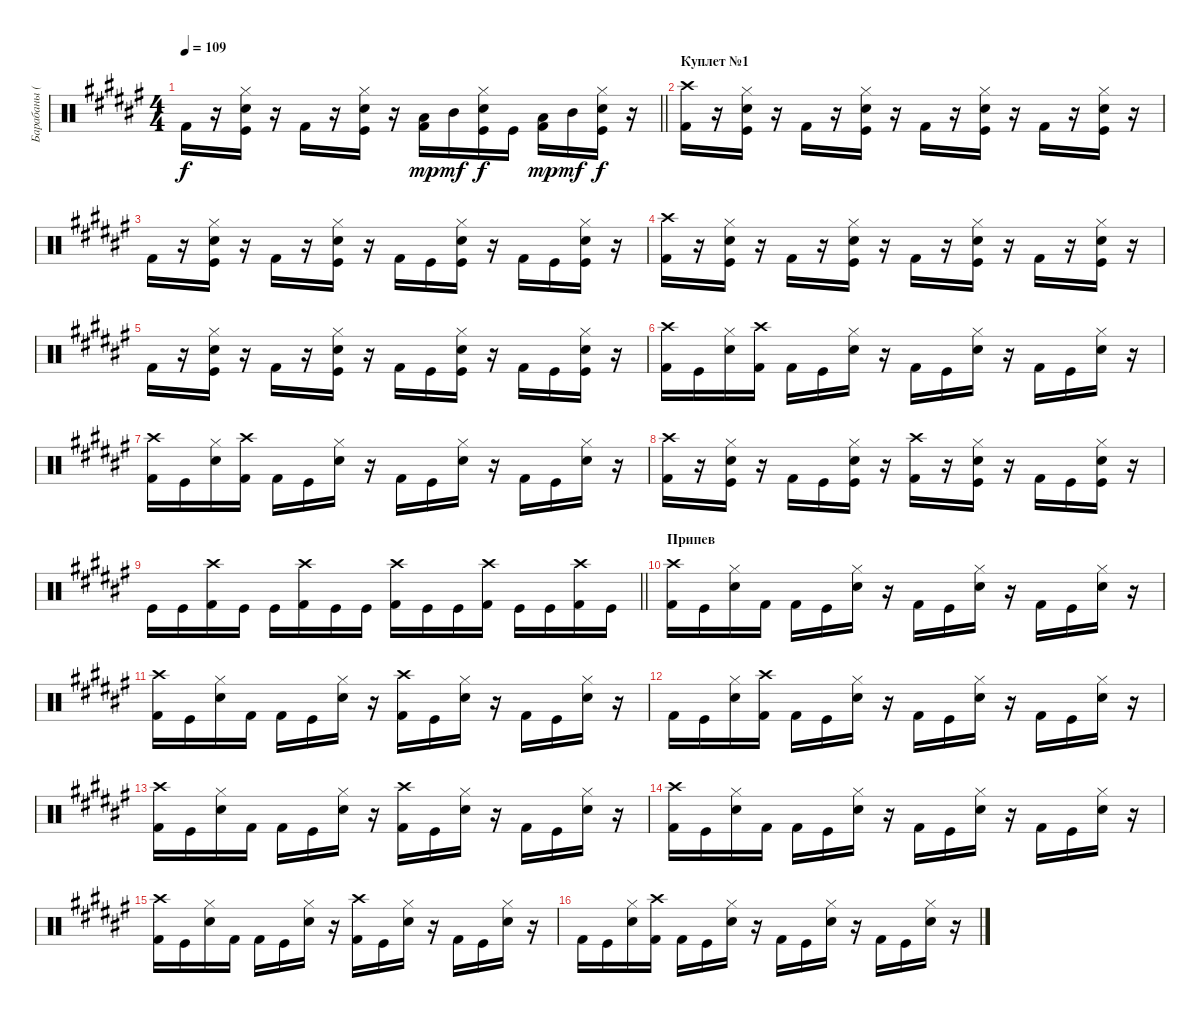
\track ("Барабаны (Н.Лысов)" "Барабаны (") {instrument percussion}
\staff {score}
\articulation defaults
\ts (4 4)
\tempo 109
\clef neutral
\barLineRight lightlight
\ks f# "Kick (hit) 2".16{dy f}
r.16 ("Hi-Hat (closed)" "Snare (hit) 2" "Kick (hit)").16 r.16 "Kick (hit) 2".16 r.16 ("Hi-Hat (closed)" "Snare (hit) 2" "Kick (hit)").16 r.16 ("Low Tom (hit)" "Kick (hit) 2").16{dy mp} "Mid Tom (hit)".16{dy mf} ("Hi-Hat (closed)" "Snare (hit) 2" "Kick (hit)").16{dy f} "Kick (hit)".16 ("Low Tom (hit)" "Kick (hit) 2").16{dy mp} "Mid Tom (hit)".16{dy mf} ("Hi-Hat (closed)" "Snare (hit) 2" "Kick (hit)").16{dy f} r.16 |
\section ("" "Куплет №1")
("Crash high (hit)" "Kick (hit) 2").16 r.16 ("Hi-Hat (closed)" "Snare (hit) 2" "Kick (hit)").16 r.16 "Kick (hit) 2".16 r.16 ("Hi-Hat (closed)" "Snare (hit) 2" "Kick (hit)").16 r.16 "Kick (hit) 2".16 r.16 ("Hi-Hat (closed)" "Snare (hit) 2" "Kick (hit)").16 r.16 "Kick (hit) 2".16 r.16 ("Hi-Hat (closed)" "Snare (hit) 2" "Kick (hit)").16 r.16 |
"Kick (hit) 2".16 r.16 ("Hi-Hat (closed)" "Snare (hit) 2" "Kick (hit)").16 r.16 "Kick (hit) 2".16 r.16 ("Hi-Hat (closed)" "Snare (hit) 2" "Kick (hit)").16 r.16 "Kick (hit) 2".16 "Kick (hit)".16 ("Hi-Hat (closed)" "Snare (hit) 2" "Kick (hit)").16 r.16 "Kick (hit) 2".16 "Kick (hit)".16 ("Hi-Hat (closed)" "Snare (hit) 2" "Kick (hit)").16 r.16 |
("Crash high (hit)" "Kick (hit) 2").16 r.16 ("Hi-Hat (closed)" "Snare (hit) 2" "Kick (hit)").16 r.16 "Kick (hit) 2".16 r.16 ("Hi-Hat (closed)" "Snare (hit) 2" "Kick (hit)").16 r.16 "Kick (hit) 2".16 r.16 ("Hi-Hat (closed)" "Snare (hit) 2" "Kick (hit)").16 r.16 "Kick (hit) 2".16 r.16 ("Hi-Hat (closed)" "Snare (hit) 2" "Kick (hit)").16 r.16 |
"Kick (hit) 2".16 r.16 ("Hi-Hat (closed)" "Snare (hit) 2" "Kick (hit)").16 r.16 "Kick (hit) 2".16 r.16 ("Hi-Hat (closed)" "Snare (hit) 2" "Kick (hit)").16 r.16 "Kick (hit) 2".16 "Kick (hit)".16 ("Hi-Hat (closed)" "Snare (hit) 2" "Kick (hit)").16 r.16 "Kick (hit) 2".16 "Kick (hit)".16 ("Hi-Hat (closed)" "Snare (hit) 2" "Kick (hit)").16 r.16 |
("Crash high (hit)" "Kick (hit) 2").16 "Kick (hit)".16 ("Hi-Hat (closed)" "Snare (hit) 2").16 ("Crash high (hit)" "Kick (hit) 2").16 "Kick (hit) 2".16 "Kick (hit)".16 ("Hi-Hat (closed)" "Snare (hit) 2").16 r.16 "Kick (hit) 2".16 "Kick (hit)".16 ("Hi-Hat (closed)" "Snare (hit) 2").16 r.16 "Kick (hit) 2".16 "Kick (hit)".16 ("Hi-Hat (closed)" "Snare (hit) 2").16 r.16 |
("Crash high (hit)" "Kick (hit) 2").16 "Kick (hit)".16 ("Hi-Hat (closed)" "Snare (hit) 2").16 ("Crash high (hit)" "Kick (hit) 2").16 "Kick (hit) 2".16 "Kick (hit)".16 ("Hi-Hat (closed)" "Snare (hit) 2").16 r.16 "Kick (hit) 2".16 "Kick (hit)".16 ("Hi-Hat (closed)" "Snare (hit) 2").16 r.16 "Kick (hit) 2".16 "Kick (hit)".16 ("Hi-Hat (closed)" "Snare (hit) 2").16 r.16 |
("Crash high (hit)" "Kick (hit) 2").16 r.16 ("Hi-Hat (closed)" "Snare (hit) 2" "Kick (hit)").16 r.16 "Kick (hit) 2".16 "Kick (hit)".16 ("Hi-Hat (closed)" "Snare (hit) 2" "Kick (hit)").16 r.16 ("Crash high (hit)" "Kick (hit) 2").16 r.16 ("Hi-Hat (closed)" "Snare (hit) 2" "Kick (hit)").16 r.16 "Kick (hit) 2".16 "Kick (hit)".16 ("Hi-Hat (closed)" "Snare (hit) 2" "Kick (hit)").16 r.16 |
\barLineRight lightlight "Kick (hit)".16 "Kick (hit)".16
("Crash high (hit)" "Kick (hit) 2").16 "Kick (hit)".16 "Kick (hit)".16 ("Crash high (hit)" "Kick (hit) 2").16 "Kick (hit)".16 "Kick (hit)".16 ("Crash high (hit)" "Kick (hit) 2").16 "Kick (hit)".16 "Kick (hit)".16 ("Crash high (hit)" "Kick (hit) 2").16 "Kick (hit)".16 "Kick (hit)".16 ("Crash high (hit)" "Kick (hit) 2").16 "Kick (hit)".16 |
\section ("" "Припев")
("Crash high (hit)" "Kick (hit) 2").16 "Kick (hit)".16 ("Hi-Hat (closed)" "Snare (hit) 2").16 "Kick (hit) 2".16 "Kick (hit) 2".16 "Kick (hit)".16 ("Hi-Hat (closed)" "Snare (hit) 2").16 r.16 "Kick (hit) 2".16 "Kick (hit)".16 ("Hi-Hat (closed)" "Snare (hit) 2").16 r.16 "Kick (hit) 2".16 "Kick (hit)".16 ("Hi-Hat (closed)" "Snare (hit) 2").16 r.16 |
("Crash high (hit)" "Kick (hit) 2").16 "Kick (hit)".16 ("Hi-Hat (closed)" "Snare (hit) 2").16 "Kick (hit) 2".16 "Kick (hit) 2".16 "Kick (hit)".16 ("Hi-Hat (closed)" "Snare (hit) 2").16 r.16 ("Crash high (hit)" "Kick (hit) 2").16 "Kick (hit)".16 ("Hi-Hat (closed)" "Snare (hit) 2").16 r.16 "Kick (hit) 2".16 "Kick (hit)".16 ("Hi-Hat (closed)" "Snare (hit) 2").16 r.16 |
"Kick (hit) 2".16 "Kick (hit)".16 ("Hi-Hat (closed)" "Snare (hit) 2").16 ("Crash high (hit)" "Kick (hit) 2").16 "Kick (hit) 2".16 "Kick (hit)".16 ("Hi-Hat (closed)" "Snare (hit) 2").16 r.16 "Kick (hit) 2".16 "Kick (hit)".16 ("Hi-Hat (closed)" "Snare (hit) 2").16 r.16 "Kick (hit) 2".16 "Kick (hit)".16 ("Hi-Hat (closed)" "Snare (hit) 2").16 r.16 |
("Crash high (hit)" "Kick (hit) 2").16 "Kick (hit)".16 ("Hi-Hat (closed)" "Snare (hit) 2").16 "Kick (hit) 2".16 "Kick (hit) 2".16 "Kick (hit)".16 ("Hi-Hat (closed)" "Snare (hit) 2").16 r.16 ("Crash high (hit)" "Kick (hit) 2").16 "Kick (hit)".16 ("Hi-Hat (closed)" "Snare (hit) 2").16 r.16 "Kick (hit) 2".16 "Kick (hit)".16 ("Hi-Hat (closed)" "Snare (hit) 2").16 r.16 |
("Crash high (hit)" "Kick (hit) 2").16 "Kick (hit)".16 ("Hi-Hat (closed)" "Snare (hit) 2").16 "Kick (hit) 2".16 "Kick (hit) 2".16 "Kick (hit)".16 ("Hi-Hat (closed)" "Snare (hit) 2").16 r.16 "Kick (hit) 2".16 "Kick (hit)".16 ("Hi-Hat (closed)" "Snare (hit) 2").16 r.16 "Kick (hit) 2".16 "Kick (hit)".16 ("Hi-Hat (closed)" "Snare (hit) 2").16 r.16 |
("Crash high (hit)" "Kick (hit) 2").16 "Kick (hit)".16 ("Hi-Hat (closed)" "Snare (hit) 2").16 "Kick (hit) 2".16 "Kick (hit) 2".16 "Kick (hit)".16 ("Hi-Hat (closed)" "Snare (hit) 2").16 r.16 ("Crash high (hit)" "Kick (hit) 2").16 "Kick (hit)".16 ("Hi-Hat (closed)" "Snare (hit) 2").16 r.16 "Kick (hit) 2".16 "Kick (hit)".16 ("Hi-Hat (closed)" "Snare (hit) 2").16 r.16 |
"Kick (hit) 2".16 "Kick (hit)".16 ("Hi-Hat (closed)" "Snare (hit) 2").16 ("Crash high (hit)" "Kick (hit) 2").16 "Kick (hit) 2".16 "Kick (hit)".16 ("Hi-Hat (closed)" "Snare (hit) 2").16 r.16 "Kick (hit) 2".16 "Kick (hit)".16 ("Hi-Hat (closed)" "Snare (hit) 2").16 r.16 "Kick (hit) 2".16 "Kick (hit)".16 ("Hi-Hat (closed)" "Snare (hit) 2").16 r.16
